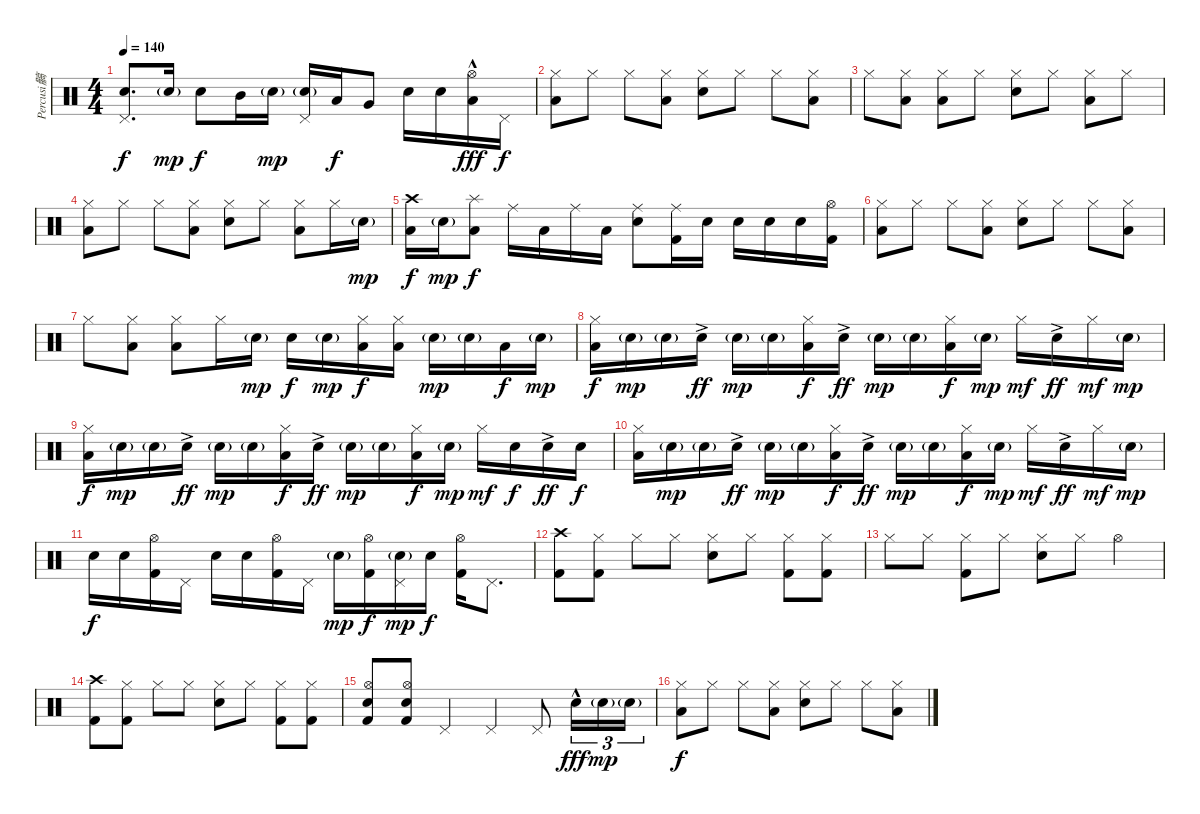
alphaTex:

\track ("Percusi髇" "Percusi髇") {instrument percussion}
\staff {score}
\articulation defaults
\ts (4 4)
\tempo 140
\clef neutral
\ks c
("Snare (hit) 2" "Pedal Hi-Hat (hit)").8{d dy f} "Snare (hit) 2"{g}.16{dy mp} "Snare (hit) 2".8{dy f} "Mid Tom (hit)".16 "Snare (hit) 2"{g}.16{dy mp} ("Snare (hit) 2"{g} "Pedal Hi-Hat (hit)").16 "Low Tom (hit)".16{dy f} "Very Low Tom (hit)".8 "Snare (hit) 2".16 "Snare (hit) 2".16 ("Hi-Hat (open)" "Low Floor Tom (hit)"{hac}).16{dy fff} "Pedal Hi-Hat (hit)".16{dy f} |
("Hi-Hat (closed)" "Low Floor Tom (hit)").8 "Hi-Hat (closed)".8 "Hi-Hat (closed)".8 ("Hi-Hat (closed)" "Low Floor Tom (hit)").8 ("Hi-Hat (closed)" "Snare (hit) 2").8 "Hi-Hat (closed)".8 "Hi-Hat (closed)".8 ("Hi-Hat (closed)" "Low Floor Tom (hit)").8 |
"Hi-Hat (closed)".8 ("Hi-Hat (closed)" "Low Floor Tom (hit)").8 ("Hi-Hat (closed)" "Low Floor Tom (hit)").8 "Hi-Hat (closed)".8 ("Hi-Hat (closed)" "Snare (hit) 2").8 "Hi-Hat (closed)".8 ("Hi-Hat (closed)" "Low Floor Tom (hit)").8 "Hi-Hat (closed)".8 |
("Hi-Hat (closed)" "Low Floor Tom (hit)").8 "Hi-Hat (closed)".8 "Hi-Hat (closed)".8 ("Hi-Hat (closed)" "Low Floor Tom (hit)").8 ("Hi-Hat (closed)" "Snare (hit) 2").8 "Hi-Hat (closed)".8 ("Hi-Hat (closed)" "Low Floor Tom (hit)").8 "Hi-Hat (closed)".16 "Snare (hit) 2"{g}.16{dy mp} |
("Crash high (hit)" "Low Floor Tom (hit)").16{dy f} "Snare (hit) 2"{g}.16{dy mp} ("Splash (hit)" "Low Floor Tom (hit)").8{dy f} "Ride (middle)".16 "Low Floor Tom (hit)".16 "Ride (middle)".16 "Low Floor Tom (hit)".16 ("Ride (middle)" "Snare (hit) 2").8 ("Ride (middle)" "Kick (hit) 2").16 "Snare (hit) 2".16 "Snare (hit) 2".16 "Snare (hit) 2".16 "Snare (hit) 2".16 ("Hi-Hat (open)" "Kick (hit) 2").16 |
("Hi-Hat (closed)" "Low Floor Tom (hit)").8 "Hi-Hat (closed)".8 "Hi-Hat (closed)".8 ("Hi-Hat (closed)" "Low Floor Tom (hit)").8 ("Hi-Hat (closed)" "Snare (hit) 2").8 "Hi-Hat (closed)".8 "Hi-Hat (closed)".8 ("Hi-Hat (closed)" "Low Floor Tom (hit)").8 |
"Hi-Hat (closed)".8 ("Hi-Hat (closed)" "Low Floor Tom (hit)").8 ("Hi-Hat (closed)" "Low Floor Tom (hit)").8 "Hi-Hat (closed)".16 "Snare (hit) 2"{g}.16{dy mp} "Snare (hit) 2".16{dy f} "Snare (hit) 2"{g}.16{dy mp} ("Hi-Hat (closed)" "Low Floor Tom (hit)").16{dy f} ("Hi-Hat (closed)" "Low Floor Tom (hit)").16 "Snare (hit) 2"{g}.16{dy mp} "Snare (hit) 2"{g}.16 "Low Tom (hit)".16{dy f} "Snare (hit) 2"{g}.16{dy mp} |
("Hi-Hat (closed)" "Low Floor Tom (hit)").16{dy f} "Snare (hit) 2"{g}.16{dy mp} "Snare (hit) 2"{g}.16 "Snare (hit) 2"{ac}.16{dy ff} "Snare (hit) 2"{g}.16{dy mp} "Snare (hit) 2"{g}.16 ("Hi-Hat (closed)" "Low Floor Tom (hit)").16{dy f} "Snare (hit) 2"{ac}.16{dy ff} "Snare (hit) 2"{g}.16{dy mp} "Snare (hit) 2"{g}.16 ("Hi-Hat (closed)" "Low Floor Tom (hit)").16{dy f} "Snare (hit) 2"{g}.16{dy mp} "Hi-Hat (closed)".16{dy mf} "Snare (hit) 2"{ac}.16{dy ff} "Hi-Hat (closed)".16{dy mf} "Snare (hit) 2"{g}.16{dy mp} |
("Hi-Hat (closed)" "Low Floor Tom (hit)").16{dy f} "Snare (hit) 2"{g}.16{dy mp} "Snare (hit) 2"{g}.16 "Snare (hit) 2"{ac}.16{dy ff} "Snare (hit) 2"{g}.16{dy mp} "Snare (hit) 2"{g}.16 ("Hi-Hat (closed)" "Low Floor Tom (hit)").16{dy f} "Snare (hit) 2"{ac}.16{dy ff} "Snare (hit) 2"{g}.16{dy mp} "Snare (hit) 2"{g}.16 ("Hi-Hat (closed)" "Low Floor Tom (hit)").16{dy f} "Snare (hit) 2"{g}.16{dy mp} "Hi-Hat (closed)".16{dy mf} "Snare (hit) 2".16{dy f} "Snare (hit) 2"{ac}.16{dy ff} "Snare (hit) 2".16{dy f} |
("Hi-Hat (closed)" "Low Floor Tom (hit)").16 "Snare (hit) 2"{g}.16{dy mp} "Snare (hit) 2"{g}.16 "Snare (hit) 2"{ac}.16{dy ff} "Snare (hit) 2"{g}.16{dy mp} "Snare (hit) 2"{g}.16 ("Hi-Hat (closed)" "Low Floor Tom (hit)").16{dy f} "Snare (hit) 2"{ac}.16{dy ff} "Snare (hit) 2"{g}.16{dy mp} "Snare (hit) 2"{g}.16 ("Hi-Hat (closed)" "Low Floor Tom (hit)").16{dy f} "Snare (hit) 2"{g}.16{dy mp} "Hi-Hat (closed)".16{dy mf} "Snare (hit) 2"{ac}.16{dy ff} "Hi-Hat (closed)".16{dy mf} "Snare (hit) 2"{g}.16{dy mp} |
"Snare (hit) 2".16{dy f} "Snare (hit) 2".16 ("Hi-Hat (open)" "Kick (hit) 2").16 "Pedal Hi-Hat (hit)".16 "Snare (hit) 2".16 "Snare (hit) 2".16 ("Hi-Hat (open)" "Kick (hit) 2").16 "Pedal Hi-Hat (hit)".16 "Snare (hit) 2"{g}.16{dy mp} ("Hi-Hat (open)" "Kick (hit) 2").16{dy f} ("Pedal Hi-Hat (hit)" "Snare (hit) 2"{g}).16{dy mp} "Snare (hit) 2".16{dy f} ("Hi-Hat (open)" "Kick (hit) 2").16 "Pedal Hi-Hat (hit)".8{d} |
("Crash high (hit)" "Kick (hit) 2").8 ("Hi-Hat (closed)" "Kick (hit) 2").8 "Hi-Hat (closed)".8 "Hi-Hat (closed)".8 ("Hi-Hat (closed)" "Snare (hit) 2").8 "Hi-Hat (closed)".8 ("Hi-Hat (closed)" "Kick (hit) 2").8 ("Hi-Hat (closed)" "Kick (hit) 2").8 |
"Hi-Hat (closed)".8 "Hi-Hat (closed)".8 ("Hi-Hat (closed)" "Kick (hit) 2").8 "Hi-Hat (closed)".8 ("Hi-Hat (closed)" "Snare (hit) 2").8 "Hi-Hat (closed)".8 "Hi-Hat (open)".4 |
("Crash high (hit)" "Kick (hit) 2").8 ("Hi-Hat (closed)" "Kick (hit) 2").8 "Hi-Hat (closed)".8 "Hi-Hat (closed)".8 ("Hi-Hat (closed)" "Snare (hit) 2").8 "Hi-Hat (closed)".8 ("Hi-Hat (closed)" "Kick (hit) 2").8 ("Hi-Hat (closed)" "Kick (hit) 2").8 |
("Hi-Hat (open)" "Snare (hit) 2" "Kick (hit) 2").8 ("Hi-Hat (open)" "Snare (hit) 2" "Kick (hit) 2").8 "Pedal Hi-Hat (hit)".4 "Pedal Hi-Hat (hit)".4 "Pedal Hi-Hat (hit)".8 "Electric Snare (hit)"{hac}.16{tu (3 2) dy fff} "Electric Snare (hit)"{g}.16{tu (3 2) dy mp} "Electric Snare (hit)"{g}.16{tu (3 2)} |
("Hi-Hat (closed)" "Low Floor Tom (hit)").8{dy f} "Hi-Hat (closed)".8 "Hi-Hat (closed)".8 ("Hi-Hat (closed)" "Low Floor Tom (hit)").8 ("Hi-Hat (closed)" "Snare (hit) 2").8 "Hi-Hat (closed)".8 "Hi-Hat (closed)".8 ("Hi-Hat (closed)" "Low Floor Tom (hit)").8
